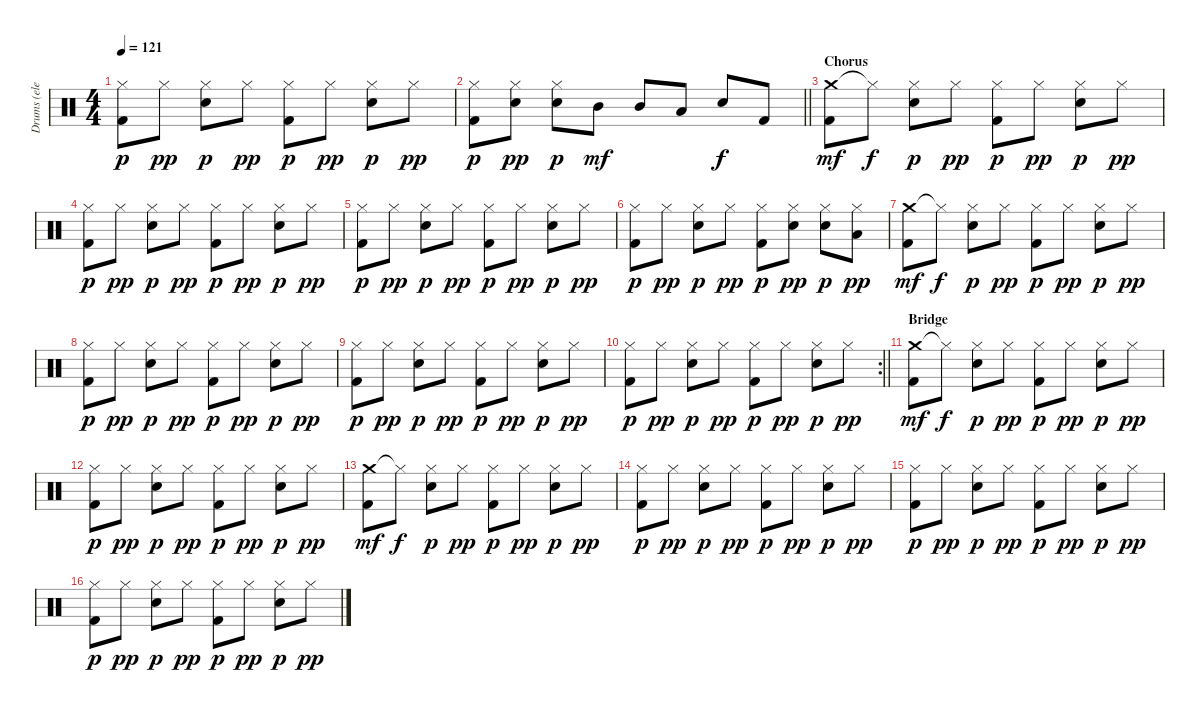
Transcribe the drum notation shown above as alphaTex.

\track ("Drums (electric)" "Drums (ele") {instrument percussion}
\staff {score}
\articulation defaults
\ts (4 4)
\tempo 121
\clef neutral
\ks c
("Hi-Hat (closed)" "Kick (hit) 2").8{dy p} "Hi-Hat (closed)".8{dy pp} ("Hi-Hat (closed)" "Snare (hit) 2").8{dy p} "Hi-Hat (closed)".8{dy pp} ("Hi-Hat (closed)" "Kick (hit) 2").8{dy p} "Hi-Hat (closed)".8{dy pp} ("Hi-Hat (closed)" "Snare (hit) 2").8{dy p} "Hi-Hat (closed)".8{dy pp} |
\barLineRight lightlight
("Hi-Hat (closed)" "Kick (hit) 2").8{dy p} ("Hi-Hat (closed)" "Snare (hit) 2").8{dy pp} ("Hi-Hat (closed)" "Snare (hit) 2").8{dy p} "Mid Tom (hit)".8{dy mf} "Mid Tom (hit)".8 "Low Tom (hit)".8 "Snare (hit) 2".8{dy f} "Kick (hit) 2".8 |
\section ("" "Chorus")
("Crash medium (hit)" "Kick (hit) 2").8{dy mf} "Hi-Hat (closed)"{t}.8{dy f} ("Hi-Hat (closed)" "Snare (hit) 2").8{dy p} "Hi-Hat (closed)".8{dy pp} ("Hi-Hat (closed)" "Kick (hit) 2").8{dy p} "Hi-Hat (closed)".8{dy pp} ("Hi-Hat (closed)" "Snare (hit) 2").8{dy p} "Hi-Hat (closed)".8{dy pp} |
("Hi-Hat (closed)" "Kick (hit) 2").8{dy p} "Hi-Hat (closed)".8{dy pp} ("Hi-Hat (closed)" "Snare (hit) 2").8{dy p} "Hi-Hat (closed)".8{dy pp} ("Hi-Hat (closed)" "Kick (hit) 2").8{dy p} "Hi-Hat (closed)".8{dy pp} ("Hi-Hat (closed)" "Snare (hit) 2").8{dy p} "Hi-Hat (closed)".8{dy pp} |
("Hi-Hat (closed)" "Kick (hit) 2").8{dy p} "Hi-Hat (closed)".8{dy pp} ("Hi-Hat (closed)" "Snare (hit) 2").8{dy p} "Hi-Hat (closed)".8{dy pp} ("Hi-Hat (closed)" "Kick (hit) 2").8{dy p} "Hi-Hat (closed)".8{dy pp} ("Hi-Hat (closed)" "Snare (hit) 2").8{dy p} "Hi-Hat (closed)".8{dy pp} |
("Hi-Hat (closed)" "Kick (hit) 2").8{dy p} "Hi-Hat (closed)".8{dy pp} ("Hi-Hat (closed)" "Snare (hit) 2").8{dy p} "Hi-Hat (closed)".8{dy pp} ("Hi-Hat (closed)" "Kick (hit) 2").8{dy p} ("Hi-Hat (closed)" "Snare (hit) 2").8{dy pp} ("Hi-Hat (closed)" "Snare (hit) 2").8{dy p} ("Hi-Hat (closed)" "Low Tom (hit)").8{dy pp} |
("Crash medium (hit)" "Kick (hit) 2").8{dy mf} "Hi-Hat (closed)"{t}.8{dy f} ("Hi-Hat (closed)" "Snare (hit) 2").8{dy p} "Hi-Hat (closed)".8{dy pp} ("Hi-Hat (closed)" "Kick (hit) 2").8{dy p} "Hi-Hat (closed)".8{dy pp} ("Hi-Hat (closed)" "Snare (hit) 2").8{dy p} "Hi-Hat (closed)".8{dy pp} |
("Hi-Hat (closed)" "Kick (hit) 2").8{dy p} "Hi-Hat (closed)".8{dy pp} ("Hi-Hat (closed)" "Snare (hit) 2").8{dy p} "Hi-Hat (closed)".8{dy pp} ("Hi-Hat (closed)" "Kick (hit) 2").8{dy p} "Hi-Hat (closed)".8{dy pp} ("Hi-Hat (closed)" "Snare (hit) 2").8{dy p} "Hi-Hat (closed)".8{dy pp} |
("Hi-Hat (closed)" "Kick (hit) 2").8{dy p} "Hi-Hat (closed)".8{dy pp} ("Hi-Hat (closed)" "Snare (hit) 2").8{dy p} "Hi-Hat (closed)".8{dy pp} ("Hi-Hat (closed)" "Kick (hit) 2").8{dy p} "Hi-Hat (closed)".8{dy pp} ("Hi-Hat (closed)" "Snare (hit) 2").8{dy p} "Hi-Hat (closed)".8{dy pp} |
\rc 2
\barLineRight lightlight
("Hi-Hat (closed)" "Kick (hit) 2").8{dy p} "Hi-Hat (closed)".8{dy pp} ("Hi-Hat (closed)" "Snare (hit) 2").8{dy p} "Hi-Hat (closed)".8{dy pp} ("Hi-Hat (closed)" "Kick (hit) 2").8{dy p} "Hi-Hat (closed)".8{dy pp} ("Hi-Hat (closed)" "Snare (hit) 2").8{dy p} "Hi-Hat (closed)".8{dy pp} |
\section ("" "Bridge")
("Crash medium (hit)" "Kick (hit) 2").8{dy mf} "Hi-Hat (closed)"{t}.8{dy f} ("Hi-Hat (closed)" "Snare (hit) 2").8{dy p} "Hi-Hat (closed)".8{dy pp} ("Hi-Hat (closed)" "Kick (hit) 2").8{dy p} "Hi-Hat (closed)".8{dy pp} ("Hi-Hat (closed)" "Snare (hit) 2").8{dy p} "Hi-Hat (closed)".8{dy pp} |
("Hi-Hat (closed)" "Kick (hit) 2").8{dy p} "Hi-Hat (closed)".8{dy pp} ("Hi-Hat (closed)" "Snare (hit) 2").8{dy p} "Hi-Hat (closed)".8{dy pp} ("Hi-Hat (closed)" "Kick (hit) 2").8{dy p} "Hi-Hat (closed)".8{dy pp} ("Hi-Hat (closed)" "Snare (hit) 2").8{dy p} "Hi-Hat (closed)".8{dy pp} |
("Crash medium (hit)" "Kick (hit) 2").8{dy mf} "Hi-Hat (closed)"{t}.8{dy f} ("Hi-Hat (closed)" "Snare (hit) 2").8{dy p} "Hi-Hat (closed)".8{dy pp} ("Hi-Hat (closed)" "Kick (hit) 2").8{dy p} "Hi-Hat (closed)".8{dy pp} ("Hi-Hat (closed)" "Snare (hit) 2").8{dy p} "Hi-Hat (closed)".8{dy pp} |
("Hi-Hat (closed)" "Kick (hit) 2").8{dy p} "Hi-Hat (closed)".8{dy pp} ("Hi-Hat (closed)" "Snare (hit) 2").8{dy p} "Hi-Hat (closed)".8{dy pp} ("Hi-Hat (closed)" "Kick (hit) 2").8{dy p} "Hi-Hat (closed)".8{dy pp} ("Hi-Hat (closed)" "Snare (hit) 2").8{dy p} "Hi-Hat (closed)".8{dy pp} |
("Hi-Hat (closed)" "Kick (hit) 2").8{dy p} "Hi-Hat (closed)".8{dy pp} ("Hi-Hat (closed)" "Snare (hit) 2").8{dy p} "Hi-Hat (closed)".8{dy pp} ("Hi-Hat (closed)" "Kick (hit) 2").8{dy p} "Hi-Hat (closed)".8{dy pp} ("Hi-Hat (closed)" "Snare (hit) 2").8{dy p} "Hi-Hat (closed)".8{dy pp} |
("Hi-Hat (closed)" "Kick (hit) 2").8{dy p} "Hi-Hat (closed)".8{dy pp} ("Hi-Hat (closed)" "Snare (hit) 2").8{dy p} "Hi-Hat (closed)".8{dy pp} ("Hi-Hat (closed)" "Kick (hit) 2").8{dy p} "Hi-Hat (closed)".8{dy pp} ("Hi-Hat (closed)" "Snare (hit) 2").8{dy p} "Hi-Hat (closed)".8{dy pp}
